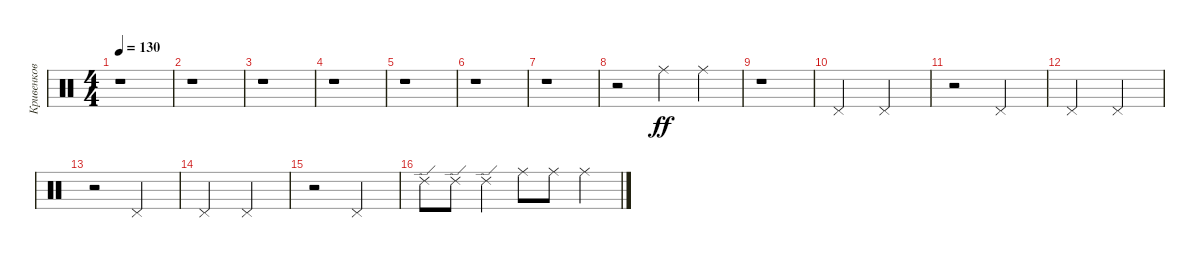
\track ("Кривенков Дмитрий" "Кривенков ") {instrument percussion}
\staff {score}
\articulation defaults
\ts (4 4)
\tempo 130
\clef neutral
\ks c
r.1{dy ff} |
r.1 |
r.1 |
r.1 |
r.1 |
r.1 |
r.1 |
r.2 "Ride (middle)".4 "Ride (middle)".4 |
r.1 |
"Pedal Hi-Hat (hit)".2 "Pedal Hi-Hat (hit)".2 |
r.2 "Pedal Hi-Hat (hit)".2 |
"Pedal Hi-Hat (hit)".2 "Pedal Hi-Hat (hit)".2 |
r.2 "Pedal Hi-Hat (hit)".2 |
"Pedal Hi-Hat (hit)".2 "Pedal Hi-Hat (hit)".2 |
r.2 "Pedal Hi-Hat (hit)".2 |
"Ride (edge) 2".8 "Ride (edge) 2".8 "Ride (edge) 2".4 "Ride (middle)".8 "Ride (middle)".8 "Ride (middle)".4
